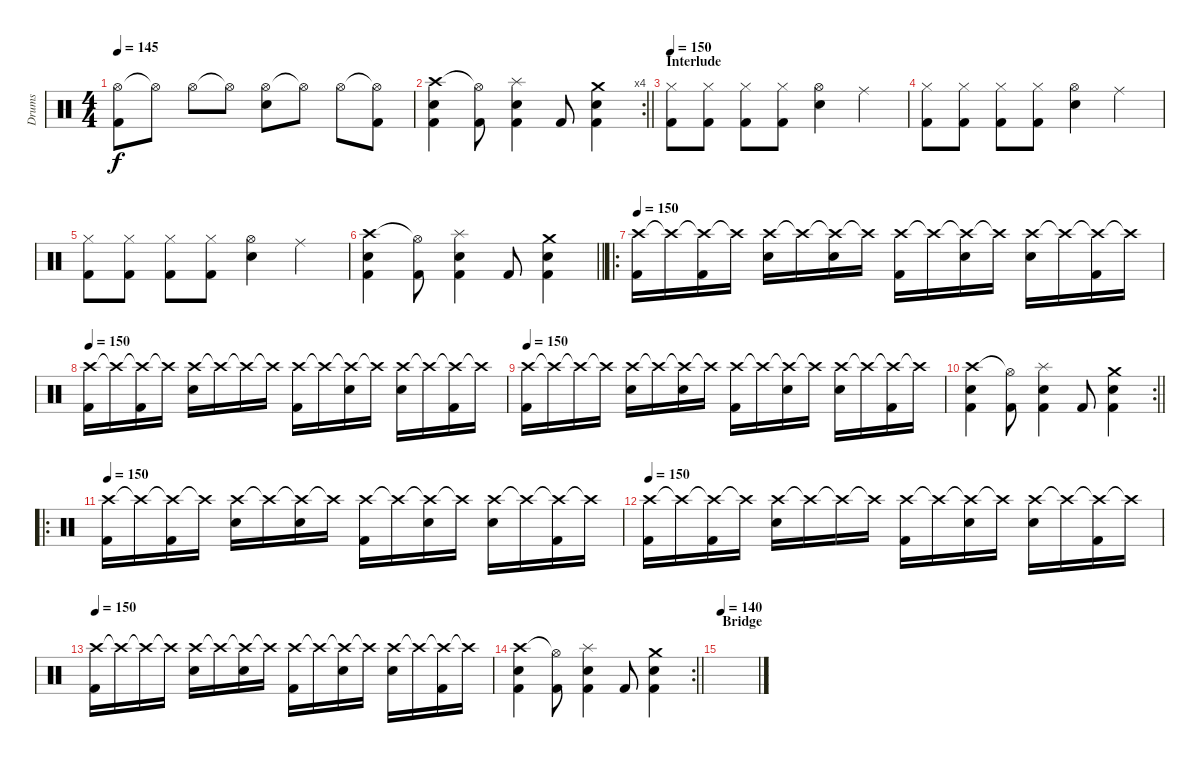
\track ("Drums" "Drums") {instrument percussion}
\staff {score}
\articulation defaults
\ts (4 4)
\tempo 145
\clef neutral
\ks c
("Hi-Hat (open)" "Kick (hit) 2").8{dy f} "Hi-Hat (open)"{t}.8 "Hi-Hat (open)".8 "Hi-Hat (open)"{t}.8 ("Hi-Hat (open)" "Snare (hit) 2").8 "Hi-Hat (open)"{t}.8 "Hi-Hat (open)".8 ("Hi-Hat (open)"{t} "Kick (hit) 2").8 |
\rc 4
\barLineRight lightlight
("Crash high (hit)" "Snare (hit) 2" "Kick (hit) 2").4 ("Hi-Hat (open)"{t} "Kick (hit) 2").8 ("Splash (hit)" "Snare (hit) 2" "Kick (hit) 2").4 "Kick (hit) 2".8 ("Crash medium (hit)" "Snare (hit) 2" "Kick (hit) 2").4 |
\section ("" "Interlude")
\tempo 150
("Hi-Hat (closed)" "Kick (hit) 2").8 ("Hi-Hat (closed)" "Kick (hit) 2").8 ("Hi-Hat (closed)" "Kick (hit) 2").8 ("Hi-Hat (closed)" "Kick (hit) 2").8 ("Hi-Hat (open)" "Snare (hit) 2").4 "Ride (middle)".4 |
("Hi-Hat (closed)" "Kick (hit) 2").8 ("Hi-Hat (closed)" "Kick (hit) 2").8 ("Hi-Hat (closed)" "Kick (hit) 2").8 ("Hi-Hat (closed)" "Kick (hit) 2").8 ("Hi-Hat (open)" "Snare (hit) 2").4 "Ride (middle)".4 |
("Hi-Hat (closed)" "Kick (hit) 2").8 ("Hi-Hat (closed)" "Kick (hit) 2").8 ("Hi-Hat (closed)" "Kick (hit) 2").8 ("Hi-Hat (closed)" "Kick (hit) 2").8 ("Hi-Hat (open)" "Snare (hit) 2").4 "Ride (middle)".4 |
\barLineRight lightlight
("Crash high (hit)" "Snare (hit) 2" "Kick (hit) 2").4 ("Hi-Hat (open)"{t} "Kick (hit) 2").8 ("Splash (hit)" "Snare (hit) 2" "Kick (hit) 2").4 "Kick (hit) 2".8 ("Crash medium (hit)" "Snare (hit) 2" "Kick (hit) 2").4 |
\ro
\tempo 150
("Crash high (hit)" "Kick (hit) 2").16 "Crash high (hit)"{t}.16 ("Crash high (hit)"{t} "Kick (hit) 2").16 "Crash high (hit)"{t}.16 ("Crash high (hit)" "Snare (hit) 2").16 "Crash high (hit)"{t}.16 ("Crash high (hit)"{t} "Snare (hit) 2").16 "Crash high (hit)"{t}.16 ("Crash high (hit)" "Kick (hit) 2").16 "Crash high (hit)"{t}.16 ("Crash high (hit)"{t} "Snare (hit) 2").16 "Crash high (hit)"{t}.16 ("Crash high (hit)" "Snare (hit) 2").16 "Crash high (hit)"{t}.16 ("Crash high (hit)"{t} "Kick (hit) 2").16 "Crash high (hit)"{t}.16 |
\tempo 150
("Crash high (hit)" "Kick (hit) 2").16 "Crash high (hit)"{t}.16 ("Crash high (hit)"{t} "Kick (hit) 2").16 "Crash high (hit)"{t}.16 ("Crash high (hit)" "Snare (hit) 2").16 "Crash high (hit)"{t}.16 "Crash high (hit)"{t}.16 "Crash high (hit)"{t}.16 ("Crash high (hit)" "Kick (hit) 2").16 "Crash high (hit)"{t}.16 ("Crash high (hit)"{t} "Snare (hit) 2").16 "Crash high (hit)"{t}.16 ("Crash high (hit)" "Snare (hit) 2").16 "Crash high (hit)"{t}.16 ("Crash high (hit)"{t} "Kick (hit) 2").16 "Crash high (hit)"{t}.16 |
\tempo 150
("Crash high (hit)" "Kick (hit) 2").16 "Crash high (hit)"{t}.16 "Crash high (hit)"{t}.16 "Crash high (hit)"{t}.16 ("Crash high (hit)" "Snare (hit) 2").16 "Crash high (hit)"{t}.16 ("Crash high (hit)"{t} "Snare (hit) 2").16 "Crash high (hit)"{t}.16 ("Crash high (hit)" "Kick (hit) 2").16 "Crash high (hit)"{t}.16 ("Crash high (hit)"{t} "Snare (hit) 2").16 "Crash high (hit)"{t}.16 ("Crash high (hit)" "Snare (hit) 2").16 "Crash high (hit)"{t}.16 ("Crash high (hit)"{t} "Kick (hit) 2").16 "Crash high (hit)"{t}.16 |
\rc 2
\barLineRight lightlight
("Crash high (hit)" "Snare (hit) 2" "Kick (hit) 2").4 ("Hi-Hat (open)"{t} "Kick (hit) 2").8 ("Splash (hit)" "Snare (hit) 2" "Kick (hit) 2").4 "Kick (hit) 2".8 ("Crash medium (hit)" "Snare (hit) 2" "Kick (hit) 2").4 |
\ro
\tempo 150
("Crash high (hit)" "Kick (hit) 2").16 "Crash high (hit)"{t}.16 ("Crash high (hit)"{t} "Kick (hit) 2").16 "Crash high (hit)"{t}.16 ("Crash high (hit)" "Snare (hit) 2").16 "Crash high (hit)"{t}.16 ("Crash high (hit)"{t} "Snare (hit) 2").16 "Crash high (hit)"{t}.16 ("Crash high (hit)" "Kick (hit) 2").16 "Crash high (hit)"{t}.16 ("Crash high (hit)"{t} "Snare (hit) 2").16 "Crash high (hit)"{t}.16 ("Crash high (hit)" "Snare (hit) 2").16 "Crash high (hit)"{t}.16 ("Crash high (hit)"{t} "Kick (hit) 2").16 "Crash high (hit)"{t}.16 |
\tempo 150
("Crash high (hit)" "Kick (hit) 2").16 "Crash high (hit)"{t}.16 ("Crash high (hit)"{t} "Kick (hit) 2").16 "Crash high (hit)"{t}.16 ("Crash high (hit)" "Snare (hit) 2").16 "Crash high (hit)"{t}.16 "Crash high (hit)"{t}.16 "Crash high (hit)"{t}.16 ("Crash high (hit)" "Kick (hit) 2").16 "Crash high (hit)"{t}.16 ("Crash high (hit)"{t} "Snare (hit) 2").16 "Crash high (hit)"{t}.16 ("Crash high (hit)" "Snare (hit) 2").16 "Crash high (hit)"{t}.16 ("Crash high (hit)"{t} "Kick (hit) 2").16 "Crash high (hit)"{t}.16 |
\tempo 150
("Crash high (hit)" "Kick (hit) 2").16 "Crash high (hit)"{t}.16 "Crash high (hit)"{t}.16 "Crash high (hit)"{t}.16 ("Crash high (hit)" "Snare (hit) 2").16 "Crash high (hit)"{t}.16 ("Crash high (hit)"{t} "Snare (hit) 2").16 "Crash high (hit)"{t}.16 ("Crash high (hit)" "Kick (hit) 2").16 "Crash high (hit)"{t}.16 ("Crash high (hit)"{t} "Snare (hit) 2").16 "Crash high (hit)"{t}.16 ("Crash high (hit)" "Snare (hit) 2").16 "Crash high (hit)"{t}.16 ("Crash high (hit)"{t} "Kick (hit) 2").16 "Crash high (hit)"{t}.16 |
\rc 2
\barLineRight lightlight
("Crash high (hit)" "Snare (hit) 2" "Kick (hit) 2").4 ("Hi-Hat (open)"{t} "Kick (hit) 2").8 ("Splash (hit)" "Snare (hit) 2" "Kick (hit) 2").4 "Kick (hit) 2".8 ("Crash medium (hit)" "Snare (hit) 2" "Kick (hit) 2").4 |
\section ("" "Bridge")
\tempo 140
